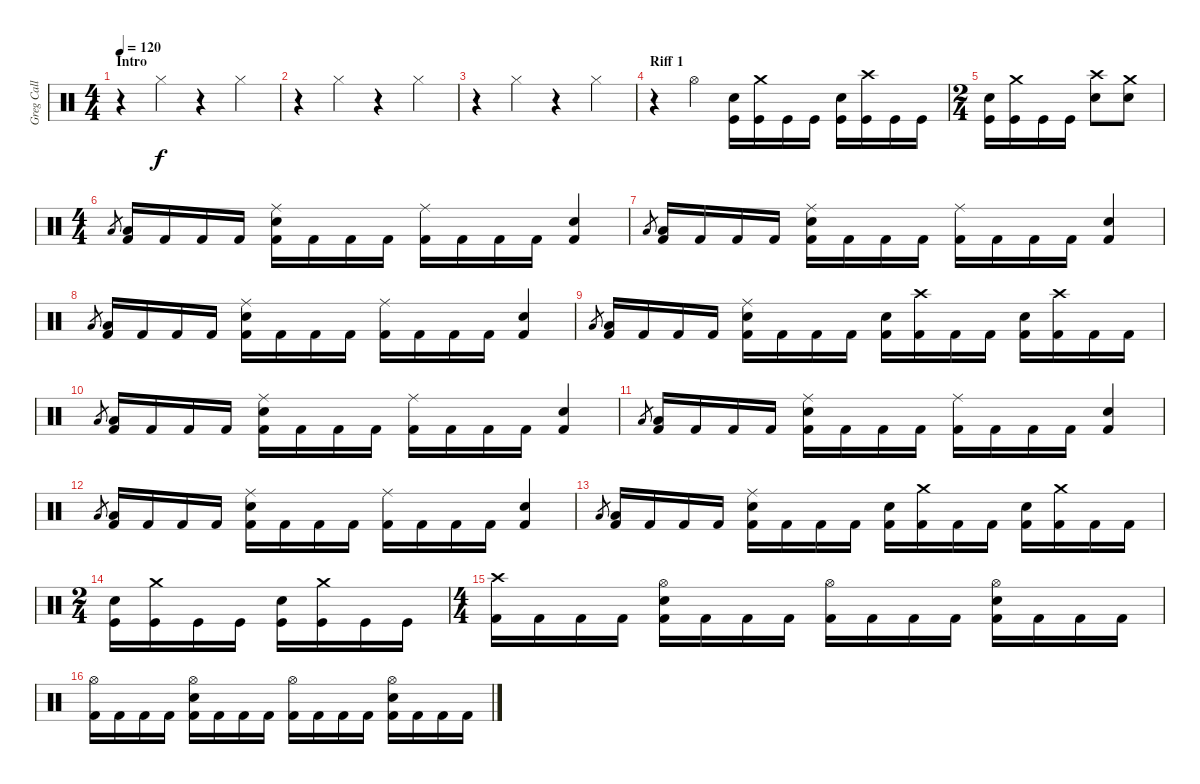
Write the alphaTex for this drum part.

\track ("Greg Call (Drums)" "Greg Call ") {instrument percussion}
\staff {score}
\articulation defaults
\ts (4 4)
\section ("" "Intro")
\tempo 120
\clef neutral
\ks c
r.4{dy f} "Hi-Hat (closed)".4 r.4 "Hi-Hat (closed)".4 |
r.4 "Hi-Hat (closed)".4 r.4 "Hi-Hat (closed)".4 |
r.4 "Hi-Hat (closed)".4 r.4 "Hi-Hat (closed)".4 |
\section ("" "Riff 1")
r.4 "Hi-Hat (open)".4 ("Kick (hit)" "Snare (hit) 2").16 ("Crash medium (hit)" "Kick (hit)").16 "Kick (hit)".16 "Kick (hit)".16 ("Kick (hit)" "Snare (hit) 2").16 ("Crash high (hit)" "Kick (hit)").16 "Kick (hit)".16 "Kick (hit)".16 |
\ts (2 4)
("Snare (hit) 2" "Kick (hit)").16 ("Crash medium (hit)" "Kick (hit)").16 "Kick (hit)".16 "Kick (hit)".16 ("Crash high (hit)" "Snare (hit) 2").8 ("Crash medium (hit)" "Snare (hit) 2").8 |
\ts (4 4)
"Low Floor Tom (hit)".8{gr} ("Low Floor Tom (hit)" "Kick (hit) 2").16 "Kick (hit) 2".16 "Kick (hit) 2".16 "Kick (hit) 2".16 ("Ride (middle)" "Snare (hit) 2" "Kick (hit) 2").16 "Kick (hit) 2".16 "Kick (hit) 2".16 "Kick (hit) 2".16 ("Ride (middle)" "Kick (hit) 2").16 "Kick (hit) 2".16 "Kick (hit) 2".16 "Kick (hit) 2".16 ("Snare (hit) 2" "Kick (hit) 2").4 |
"Low Floor Tom (hit)".8{gr} ("Low Floor Tom (hit)" "Kick (hit) 2").16 "Kick (hit) 2".16 "Kick (hit) 2".16 "Kick (hit) 2".16 ("Ride (middle)" "Snare (hit) 2" "Kick (hit) 2").16 "Kick (hit) 2".16 "Kick (hit) 2".16 "Kick (hit) 2".16 ("Ride (middle)" "Kick (hit) 2").16 "Kick (hit) 2".16 "Kick (hit) 2".16 "Kick (hit) 2".16 ("Snare (hit) 2" "Kick (hit) 2").4 |
"Low Floor Tom (hit)".8{gr} ("Low Floor Tom (hit)" "Kick (hit) 2").16 "Kick (hit) 2".16 "Kick (hit) 2".16 "Kick (hit) 2".16 ("Ride (middle)" "Snare (hit) 2" "Kick (hit) 2").16 "Kick (hit) 2".16 "Kick (hit) 2".16 "Kick (hit) 2".16 ("Ride (middle)" "Kick (hit) 2").16 "Kick (hit) 2".16 "Kick (hit) 2".16 "Kick (hit) 2".16 ("Snare (hit) 2" "Kick (hit) 2").4 |
"Low Floor Tom (hit)".8{gr} ("Low Floor Tom (hit)" "Kick (hit) 2").16 "Kick (hit) 2".16 "Kick (hit) 2".16 "Kick (hit) 2".16 ("Ride (middle)" "Snare (hit) 2" "Kick (hit) 2").16 "Kick (hit) 2".16 "Kick (hit) 2".16 "Kick (hit) 2".16 ("Snare (hit) 2" "Kick (hit) 2").16 ("Crash high (hit)" "Kick (hit) 2").16 "Kick (hit) 2".16 "Kick (hit) 2".16 ("Snare (hit) 2" "Kick (hit) 2").16 ("Crash high (hit)" "Kick (hit) 2").16 "Kick (hit) 2".16 "Kick (hit) 2".16 |
"Low Floor Tom (hit)".8{gr} ("Low Floor Tom (hit)" "Kick (hit) 2").16 "Kick (hit) 2".16 "Kick (hit) 2".16 "Kick (hit) 2".16 ("Ride (middle)" "Snare (hit) 2" "Kick (hit) 2").16 "Kick (hit) 2".16 "Kick (hit) 2".16 "Kick (hit) 2".16 ("Ride (middle)" "Kick (hit) 2").16 "Kick (hit) 2".16 "Kick (hit) 2".16 "Kick (hit) 2".16 ("Snare (hit) 2" "Kick (hit) 2").4 |
"Low Floor Tom (hit)".8{gr} ("Low Floor Tom (hit)" "Kick (hit) 2").16 "Kick (hit) 2".16 "Kick (hit) 2".16 "Kick (hit) 2".16 ("Ride (middle)" "Snare (hit) 2" "Kick (hit) 2").16 "Kick (hit) 2".16 "Kick (hit) 2".16 "Kick (hit) 2".16 ("Ride (middle)" "Kick (hit) 2").16 "Kick (hit) 2".16 "Kick (hit) 2".16 "Kick (hit) 2".16 ("Snare (hit) 2" "Kick (hit) 2").4 |
"Low Floor Tom (hit)".8{gr} ("Low Floor Tom (hit)" "Kick (hit) 2").16 "Kick (hit) 2".16 "Kick (hit) 2".16 "Kick (hit) 2".16 ("Ride (middle)" "Snare (hit) 2" "Kick (hit) 2").16 "Kick (hit) 2".16 "Kick (hit) 2".16 "Kick (hit) 2".16 ("Ride (middle)" "Kick (hit) 2").16 "Kick (hit) 2".16 "Kick (hit) 2".16 "Kick (hit) 2".16 ("Snare (hit) 2" "Kick (hit) 2").4 |
"Low Floor Tom (hit)".8{gr} ("Low Floor Tom (hit)" "Kick (hit) 2").16 "Kick (hit) 2".16 "Kick (hit) 2".16 "Kick (hit) 2".16 ("Ride (middle)" "Snare (hit) 2" "Kick (hit) 2").16 "Kick (hit) 2".16 "Kick (hit) 2".16 "Kick (hit) 2".16 ("Snare (hit) 2" "Kick (hit) 2").16 ("Crash medium (hit)" "Kick (hit) 2").16 "Kick (hit) 2".16 "Kick (hit) 2".16 ("Snare (hit) 2" "Kick (hit) 2").16 ("Crash medium (hit)" "Kick (hit) 2").16 "Kick (hit) 2".16 "Kick (hit) 2".16 |
\ts (2 4)
("Snare (hit) 2" "Kick (hit)").16 ("Crash medium (hit)" "Kick (hit)").16 "Kick (hit)".16 "Kick (hit)".16 ("Snare (hit) 2" "Kick (hit)").16 ("Crash medium (hit)" "Kick (hit)").16 "Kick (hit)".16 "Kick (hit)".16 |
\ts (4 4)
("Crash high (hit)" "Kick (hit) 2").16 "Kick (hit) 2".16 "Kick (hit) 2".16 "Kick (hit) 2".16 ("Hi-Hat (open)" "Snare (hit) 2" "Kick (hit) 2").16 "Kick (hit) 2".16 "Kick (hit) 2".16 "Kick (hit) 2".16 ("Hi-Hat (open)" "Kick (hit) 2").16 "Kick (hit) 2".16 "Kick (hit) 2".16 "Kick (hit) 2".16 ("Hi-Hat (open)" "Snare (hit) 2" "Kick (hit) 2").16 "Kick (hit) 2".16 "Kick (hit) 2".16 "Kick (hit) 2".16 |
("Hi-Hat (open)" "Kick (hit) 2").16 "Kick (hit) 2".16 "Kick (hit) 2".16 "Kick (hit) 2".16 ("Hi-Hat (open)" "Snare (hit) 2" "Kick (hit) 2").16 "Kick (hit) 2".16 "Kick (hit) 2".16 "Kick (hit) 2".16 ("Hi-Hat (open)" "Kick (hit) 2").16 "Kick (hit) 2".16 "Kick (hit) 2".16 "Kick (hit) 2".16 ("Hi-Hat (open)" "Snare (hit) 2" "Kick (hit) 2").16 "Kick (hit) 2".16 "Kick (hit) 2".16 "Kick (hit) 2".16
